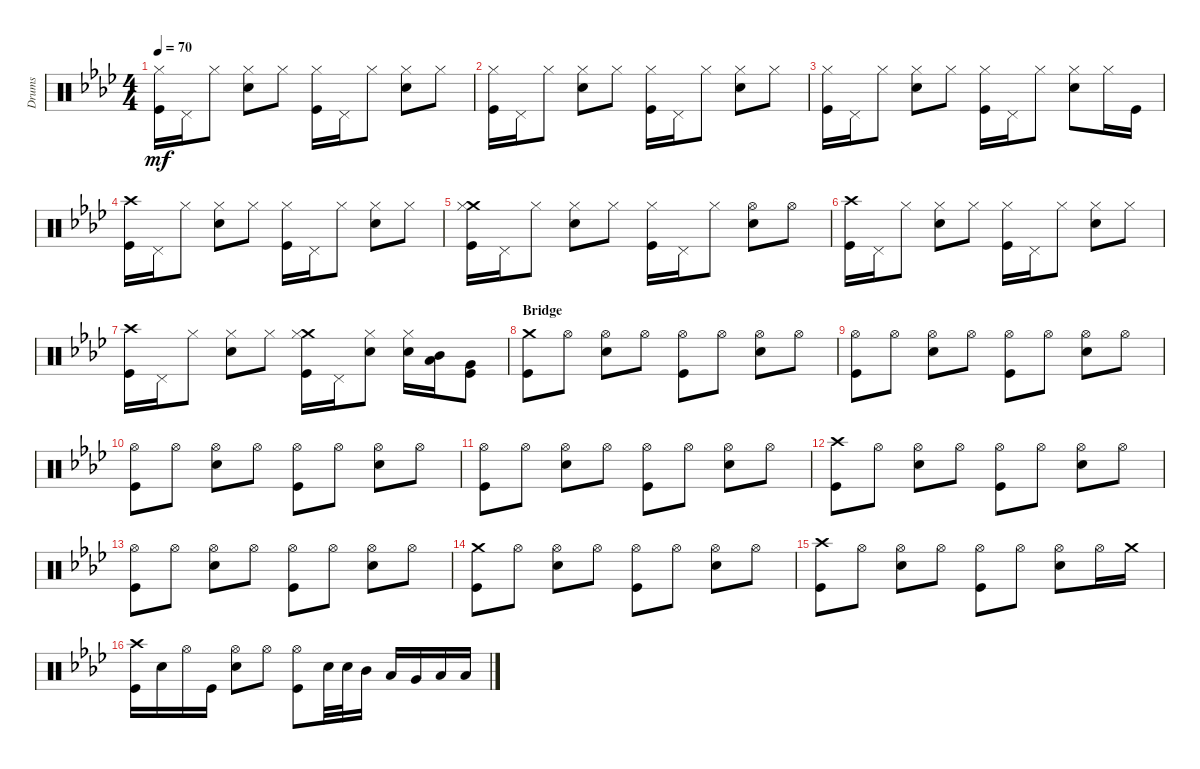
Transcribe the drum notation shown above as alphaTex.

\track ("Drums" "Drums") {instrument percussion}
\staff {score}
\articulation defaults
\ts (4 4)
\tempo 70
\clef neutral
\ks ab
("Hi-Hat (closed)" "Kick (hit)").16{dy mf} "Pedal Hi-Hat (hit)".16 "Hi-Hat (closed)".8 ("Hi-Hat (closed)" "Electric Snare (hit)").8 "Hi-Hat (closed)".8 ("Hi-Hat (closed)" "Kick (hit)").16 "Pedal Hi-Hat (hit)".16 "Hi-Hat (closed)".8 ("Hi-Hat (closed)" "Electric Snare (hit)").8 "Hi-Hat (closed)".8 |
("Hi-Hat (closed)" "Kick (hit)").16 "Pedal Hi-Hat (hit)".16 "Hi-Hat (closed)".8 ("Hi-Hat (closed)" "Electric Snare (hit)").8 "Hi-Hat (closed)".8 ("Hi-Hat (closed)" "Kick (hit)").16 "Pedal Hi-Hat (hit)".16 "Hi-Hat (closed)".8 ("Hi-Hat (closed)" "Electric Snare (hit)").8 "Hi-Hat (closed)".8 |
("Hi-Hat (closed)" "Kick (hit)").16 "Pedal Hi-Hat (hit)".16 "Hi-Hat (closed)".8 ("Hi-Hat (closed)" "Electric Snare (hit)").8 "Hi-Hat (closed)".8 ("Hi-Hat (closed)" "Kick (hit)").16 "Pedal Hi-Hat (hit)".16 "Hi-Hat (closed)".8 ("Hi-Hat (closed)" "Electric Snare (hit)").8 "Hi-Hat (closed)".16 "Kick (hit)".16 |
("Crash high (hit)" "Kick (hit)").16 "Pedal Hi-Hat (hit)".16 "Hi-Hat (closed)".8 ("Hi-Hat (closed)" "Electric Snare (hit)").8 "Hi-Hat (closed)".8 ("Hi-Hat (closed)" "Kick (hit)").16 "Pedal Hi-Hat (hit)".16 "Hi-Hat (closed)".8 ("Hi-Hat (closed)" "Electric Snare (hit)").8 "Hi-Hat (closed)".8 |
("Crash medium (hit)" "Hi-Hat (closed)" "Kick (hit)").16 "Pedal Hi-Hat (hit)".16 "Hi-Hat (closed)".8 ("Hi-Hat (closed)" "Electric Snare (hit)").8 "Hi-Hat (closed)".8 ("Hi-Hat (closed)" "Kick (hit)").16 "Pedal Hi-Hat (hit)".16 "Hi-Hat (closed)".8 ("Hi-Hat (open)" "Electric Snare (hit)").8 "Hi-Hat (open)".8 |
("Crash high (hit)" "Kick (hit)").16 "Pedal Hi-Hat (hit)".16 "Hi-Hat (closed)".8 ("Hi-Hat (closed)" "Electric Snare (hit)").8 "Hi-Hat (closed)".8 ("Hi-Hat (closed)" "Kick (hit)").16 "Pedal Hi-Hat (hit)".16 "Hi-Hat (closed)".8 ("Hi-Hat (closed)" "Electric Snare (hit)").8 "Hi-Hat (closed)".8 |
("Crash high (hit)" "Kick (hit)").16 "Pedal Hi-Hat (hit)".16 "Hi-Hat (closed)".8 ("Hi-Hat (closed)" "Electric Snare (hit)").8 "Hi-Hat (closed)".8 ("Crash medium (hit)" "Hi-Hat (closed)" "Kick (hit)").16 "Pedal Hi-Hat (hit)".16 ("Hi-Hat (closed)" "Electric Snare (hit)").8 ("Hi-Hat (closed)" "Electric Snare (hit)").16 ("Mid Tom (hit)" "Low Tom (hit)").16 ("Very Low Tom (hit)" "Kick (hit)").8 |
\section ("" "Bridge")
("Crash medium (hit)" "Kick (hit)").8 "Hi-Hat (open)".8 ("Hi-Hat (open)" "Electric Snare (hit)").8 "Hi-Hat (open)".8 ("Hi-Hat (open)" "Kick (hit)").8 "Hi-Hat (open)".8 ("Hi-Hat (open)" "Electric Snare (hit)").8 "Hi-Hat (open)".8 |
("Hi-Hat (open)" "Kick (hit)").8 "Hi-Hat (open)".8 ("Hi-Hat (open)" "Electric Snare (hit)").8 "Hi-Hat (open)".8 ("Hi-Hat (open)" "Kick (hit)").8 "Hi-Hat (open)".8 ("Hi-Hat (open)" "Electric Snare (hit)").8 "Hi-Hat (open)".8 |
("Hi-Hat (open)" "Kick (hit)").8 "Hi-Hat (open)".8 ("Hi-Hat (open)" "Electric Snare (hit)").8 "Hi-Hat (open)".8 ("Hi-Hat (open)" "Kick (hit)").8 "Hi-Hat (open)".8 ("Hi-Hat (open)" "Electric Snare (hit)").8 "Hi-Hat (open)".8 |
("Hi-Hat (open)" "Kick (hit)").8 "Hi-Hat (open)".8 ("Hi-Hat (open)" "Electric Snare (hit)").8 "Hi-Hat (open)".8 ("Hi-Hat (open)" "Kick (hit)").8 "Hi-Hat (open)".8 ("Hi-Hat (open)" "Electric Snare (hit)").8 "Hi-Hat (open)".8 |
("Crash high (hit)" "Kick (hit)").8 "Hi-Hat (open)".8 ("Hi-Hat (open)" "Electric Snare (hit)").8 "Hi-Hat (open)".8 ("Hi-Hat (open)" "Kick (hit)").8 "Hi-Hat (open)".8 ("Hi-Hat (open)" "Electric Snare (hit)").8 "Hi-Hat (open)".8 |
("Hi-Hat (open)" "Kick (hit)").8 "Hi-Hat (open)".8 ("Hi-Hat (open)" "Electric Snare (hit)").8 "Hi-Hat (open)".8 ("Hi-Hat (open)" "Kick (hit)").8 "Hi-Hat (open)".8 ("Hi-Hat (open)" "Electric Snare (hit)").8 "Hi-Hat (open)".8 |
("Crash medium (hit)" "Kick (hit)").8 "Hi-Hat (open)".8 ("Hi-Hat (open)" "Electric Snare (hit)").8 "Hi-Hat (open)".8 ("Hi-Hat (open)" "Kick (hit)").8 "Hi-Hat (open)".8 ("Hi-Hat (open)" "Electric Snare (hit)").8 "Hi-Hat (open)".8 |
("Crash high (hit)" "Kick (hit)").8 "Hi-Hat (open)".8 ("Hi-Hat (open)" "Electric Snare (hit)").8 "Hi-Hat (open)".8 ("Hi-Hat (open)" "Kick (hit)").8 "Hi-Hat (open)".8 ("Hi-Hat (open)" "Electric Snare (hit)").8 "Hi-Hat (open)".16 "Crash medium (hit)".16 |
("Crash high (hit)" "Kick (hit)").16 "Electric Snare (hit)".16 "Hi-Hat (open)".16 "Kick (hit)".16 ("Hi-Hat (open)" "Electric Snare (hit)").8 "Hi-Hat (open)".8 ("Hi-Hat (open)" "Kick (hit)").8 "Electric Snare (hit)".32 "Electric Snare (hit)".32 "Mid Tom (hit)".16 "Low Tom (hit)".16 "Very Low Tom (hit)".16 "Low Floor Tom (hit)".16 "Low Tom (hit)".16
